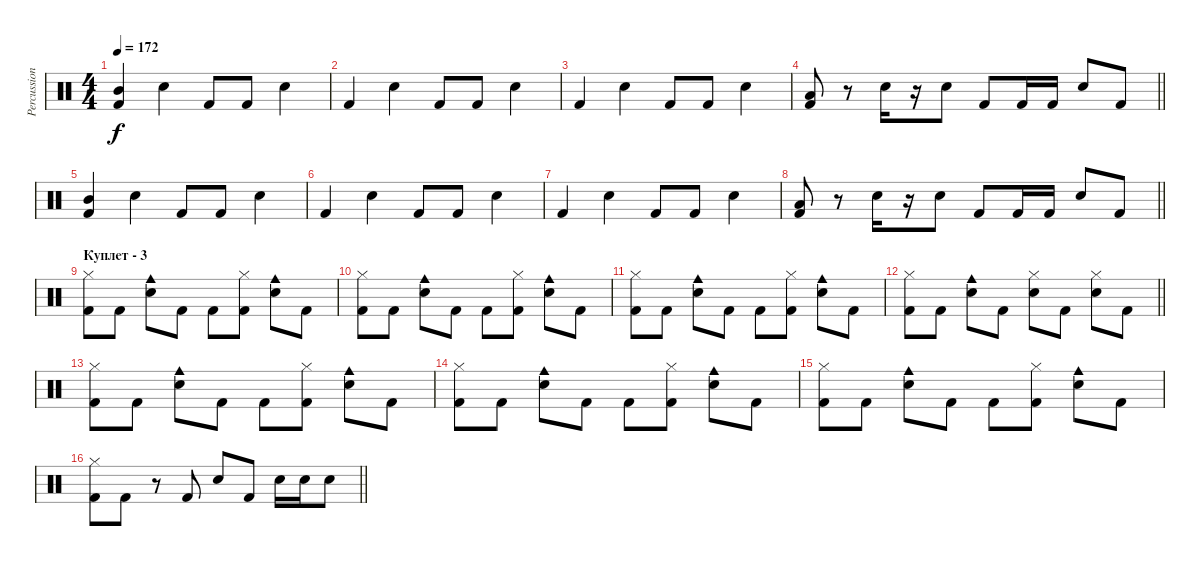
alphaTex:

\track ("Percussion" "Percussion") {instrument percussion}
\staff {score}
\articulation defaults
\ts (4 4)
\tempo 172
\clef neutral
\ks c
("Mid Tom (hit)" "Kick (hit) 2").4{dy f} "Snare (hit) 2".4 "Kick (hit) 2".8 "Kick (hit) 2".8 "Snare (hit) 2".4 |
"Kick (hit) 2".4 "Snare (hit) 2".4 "Kick (hit) 2".8 "Kick (hit) 2".8 "Snare (hit) 2".4 |
"Kick (hit) 2".4 "Snare (hit) 2".4 "Kick (hit) 2".8 "Kick (hit) 2".8 "Snare (hit) 2".4 |
\barLineRight lightlight
("Low Tom (hit)" "Kick (hit) 2").8 r.8 "Snare (hit) 2".16 r.16 "Snare (hit) 2".8 "Kick (hit) 2".8 "Kick (hit) 2".16 "Kick (hit) 2".16 "Snare (hit) 2".8 "Kick (hit) 2".8 |
("Mid Tom (hit)" "Kick (hit) 2").4 "Snare (hit) 2".4 "Kick (hit) 2".8 "Kick (hit) 2".8 "Snare (hit) 2".4 |
"Kick (hit) 2".4 "Snare (hit) 2".4 "Kick (hit) 2".8 "Kick (hit) 2".8 "Snare (hit) 2".4 |
"Kick (hit) 2".4 "Snare (hit) 2".4 "Kick (hit) 2".8 "Kick (hit) 2".8 "Snare (hit) 2".4 |
\barLineRight lightlight
("Low Tom (hit)" "Kick (hit) 2").8 r.8 "Snare (hit) 2".16 r.16 "Snare (hit) 2".8 "Kick (hit) 2".8 "Kick (hit) 2".16 "Kick (hit) 2".16 "Snare (hit) 2".8 "Kick (hit) 2".8 |
\section ("" "Куплет - 3")
("Hi-Hat (closed)" "Kick (hit) 2").8 "Kick (hit) 2".8 ("Cowbell medium (hit)" "Snare (hit) 2").8 "Kick (hit) 2".8 "Kick (hit) 2".8 ("Hi-Hat (closed)" "Kick (hit) 2").8 ("Cowbell medium (hit)" "Snare (hit) 2").8 "Kick (hit) 2".8 |
("Hi-Hat (closed)" "Kick (hit) 2").8 "Kick (hit) 2".8 ("Cowbell medium (hit)" "Snare (hit) 2").8 "Kick (hit) 2".8 "Kick (hit) 2".8 ("Hi-Hat (closed)" "Kick (hit) 2").8 ("Cowbell medium (hit)" "Snare (hit) 2").8 "Kick (hit) 2".8 |
("Hi-Hat (closed)" "Kick (hit) 2").8 "Kick (hit) 2".8 ("Cowbell medium (hit)" "Snare (hit) 2").8 "Kick (hit) 2".8 "Kick (hit) 2".8 ("Hi-Hat (closed)" "Kick (hit) 2").8 ("Cowbell medium (hit)" "Snare (hit) 2").8 "Kick (hit) 2".8 |
\barLineRight lightlight
("Hi-Hat (closed)" "Kick (hit) 2").8 "Kick (hit) 2".8 ("Cowbell medium (hit)" "Snare (hit) 2").8 "Kick (hit) 2".8 ("Hi-Hat (closed)" "Snare (hit) 2").8 "Kick (hit) 2".8 ("Hi-Hat (closed)" "Snare (hit) 2").8 "Kick (hit) 2".8 |
("Hi-Hat (closed)" "Kick (hit) 2").8 "Kick (hit) 2".8 ("Cowbell medium (hit)" "Snare (hit) 2").8 "Kick (hit) 2".8 "Kick (hit) 2".8 ("Hi-Hat (closed)" "Kick (hit) 2").8 ("Cowbell medium (hit)" "Snare (hit) 2").8 "Kick (hit) 2".8 |
("Hi-Hat (closed)" "Kick (hit) 2").8 "Kick (hit) 2".8 ("Cowbell medium (hit)" "Snare (hit) 2").8 "Kick (hit) 2".8 "Kick (hit) 2".8 ("Hi-Hat (closed)" "Kick (hit) 2").8 ("Cowbell medium (hit)" "Snare (hit) 2").8 "Kick (hit) 2".8 |
("Hi-Hat (closed)" "Kick (hit) 2").8 "Kick (hit) 2".8 ("Cowbell medium (hit)" "Snare (hit) 2").8 "Kick (hit) 2".8 "Kick (hit) 2".8 ("Hi-Hat (closed)" "Kick (hit) 2").8 ("Cowbell medium (hit)" "Snare (hit) 2").8 "Kick (hit) 2".8 |
\barLineRight lightlight
("Hi-Hat (closed)" "Kick (hit) 2").8 "Kick (hit) 2".8 r.8 "Kick (hit) 2".8 "Snare (hit) 2".8 "Kick (hit) 2".8 "Snare (hit) 2".16 "Snare (hit) 2".16 "Snare (hit) 2".8
